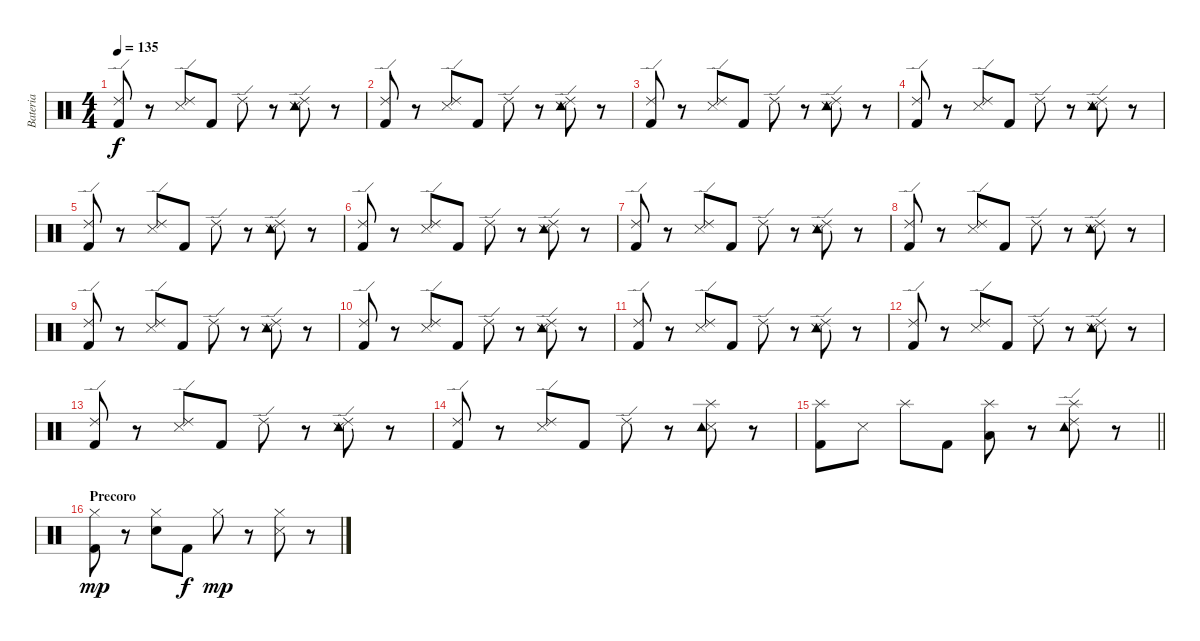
\track ("Bateria" "Bateria") {instrument percussion}
\staff {score}
\articulation defaults
\ts (4 4)
\tempo 135
\clef neutral
\ks c
("Ride (edge) 2" "Kick (hit) 2").8{dy f} r.8 ("Ride (edge) 2" "Snare (side stick) 3").8 "Kick (hit) 2".8 "Ride (edge) 2".8 r.8 ("Ride (edge) 2" "Snare (side stick) 3" "Tambourine (hit)").8 r.8 |
("Ride (edge) 2" "Kick (hit) 2").8 r.8 ("Ride (edge) 2" "Snare (side stick) 3").8 "Kick (hit) 2".8 "Ride (edge) 2".8 r.8 ("Ride (edge) 2" "Snare (side stick) 3" "Tambourine (hit)").8 r.8 |
("Ride (edge) 2" "Kick (hit) 2").8 r.8 ("Ride (edge) 2" "Snare (side stick) 3").8 "Kick (hit) 2".8 "Ride (edge) 2".8 r.8 ("Ride (edge) 2" "Snare (side stick) 3" "Tambourine (hit)").8 r.8 |
("Ride (edge) 2" "Kick (hit) 2").8 r.8 ("Ride (edge) 2" "Snare (side stick) 3").8 "Kick (hit) 2".8 "Ride (edge) 2".8 r.8 ("Ride (edge) 2" "Snare (side stick) 3" "Tambourine (hit)").8 r.8 |
("Ride (edge) 2" "Kick (hit) 2").8 r.8 ("Ride (edge) 2" "Snare (side stick) 3").8 "Kick (hit) 2".8 "Ride (edge) 2".8 r.8 ("Ride (edge) 2" "Snare (side stick) 3" "Tambourine (hit)").8 r.8 |
("Ride (edge) 2" "Kick (hit) 2").8 r.8 ("Ride (edge) 2" "Snare (side stick) 3").8 "Kick (hit) 2".8 "Ride (edge) 2".8 r.8 ("Ride (edge) 2" "Snare (side stick) 3" "Tambourine (hit)").8 r.8 |
("Ride (edge) 2" "Kick (hit) 2").8 r.8 ("Ride (edge) 2" "Snare (side stick) 3").8 "Kick (hit) 2".8 "Ride (edge) 2".8 r.8 ("Ride (edge) 2" "Snare (side stick) 3" "Tambourine (hit)").8 r.8 |
("Ride (edge) 2" "Kick (hit) 2").8 r.8 ("Ride (edge) 2" "Snare (side stick) 3").8 "Kick (hit) 2".8 "Ride (edge) 2".8 r.8 ("Ride (edge) 2" "Snare (side stick) 3" "Tambourine (hit)").8 r.8 |
("Ride (edge) 2" "Kick (hit) 2").8 r.8 ("Ride (edge) 2" "Snare (side stick) 3").8 "Kick (hit) 2".8 "Ride (edge) 2".8 r.8 ("Ride (edge) 2" "Snare (side stick) 3" "Tambourine (hit)").8 r.8 |
("Ride (edge) 2" "Kick (hit) 2").8 r.8 ("Ride (edge) 2" "Snare (side stick) 3").8 "Kick (hit) 2".8 "Ride (edge) 2".8 r.8 ("Ride (edge) 2" "Snare (side stick) 3" "Tambourine (hit)").8 r.8 |
("Ride (edge) 2" "Kick (hit) 2").8 r.8 ("Ride (edge) 2" "Snare (side stick) 3").8 "Kick (hit) 2".8 "Ride (edge) 2".8 r.8 ("Ride (edge) 2" "Snare (side stick) 3" "Tambourine (hit)").8 r.8 |
("Ride (edge) 2" "Kick (hit) 2").8 r.8 ("Ride (edge) 2" "Snare (side stick) 3").8 "Kick (hit) 2".8 "Ride (edge) 2".8 r.8 ("Ride (edge) 2" "Snare (side stick) 3" "Tambourine (hit)").8 r.8 |
("Ride (edge) 2" "Kick (hit) 2").8 r.8 ("Ride (edge) 2" "Snare (side stick) 3").8 "Kick (hit) 2".8 "Ride (edge) 2".8 r.8 ("Ride (edge) 2" "Snare (side stick) 3" "Tambourine (hit)").8 r.8 |
("Ride (edge) 2" "Kick (hit) 2").8 r.8 ("Ride (edge) 2" "Snare (side stick) 3").8 "Kick (hit) 2".8 "Ride (edge) 2".8 r.8 ("Splash (hit)" "Snare (side stick) 3" "Tambourine (hit)").8 r.8 |
\barLineRight lightlight
("Splash (hit)" "Kick (hit) 2").8 "Snare (side stick) 3".8 "Splash (hit)".8 "Kick (hit) 2".8 ("Splash (hit)" "Low Tom (hit)").8 r.8 ("Splash (hit)" "Ride (edge) 2" "Tambourine (hit)").8 r.8 |
\section ("" "Precoro")
("Hi-Hat (closed)" "Kick (hit) 2").8{dy mp} r.8 ("Hi-Hat (closed)" "Snare (hit) 2").8 "Kick (hit) 2".8{dy f} "Hi-Hat (closed)".8{dy mp} r.8 ("Hi-Hat (closed)" "Snare (side stick) 3").8 r.8
